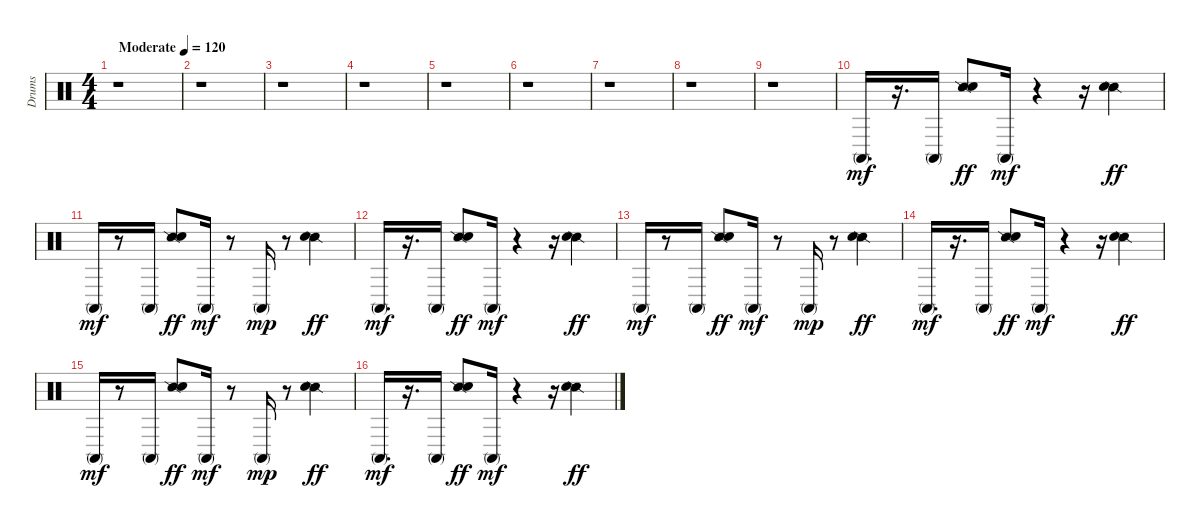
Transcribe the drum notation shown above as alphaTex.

\track ("Drums" "Drums") {instrument percussion}
\staff {score}
\articulation defaults
\ts (4 4)
\tempo (120 "Moderate")
\clef neutral
\ks c
r.1{dy mf} |
r.1 |
r.1 |
r.1 |
r.1 |
r.1 |
r.1 |
r.1 |
r.1 |
"Conga high (mute)".16{d} r.16{d} "Conga high (mute)".16 ("Snare (side stick) 2" "Hand Clap (hit)").8{dy ff} "Conga high (mute)".16{dy mf} r.4 r.16 ("Snare (side stick) 2" "Hand Clap (hit)").4{dy ff} |
"Conga high (mute)".16{dy mf} r.8 "Conga high (mute)".16 ("Snare (side stick) 2" "Hand Clap (hit)").8{dy ff} "Conga high (mute)".16{dy mf} r.8 "Conga high (mute)".16{dy mp} r.8 ("Snare (side stick) 2" "Hand Clap (hit)").4{dy ff} |
"Conga high (mute)".16{d dy mf} r.16{d} "Conga high (mute)".16 ("Snare (side stick) 2" "Hand Clap (hit)").8{dy ff} "Conga high (mute)".16{dy mf} r.4 r.16 ("Snare (side stick) 2" "Hand Clap (hit)").4{dy ff} |
"Conga high (mute)".16{dy mf} r.8 "Conga high (mute)".16 ("Snare (side stick) 2" "Hand Clap (hit)").8{dy ff} "Conga high (mute)".16{dy mf} r.8 "Conga high (mute)".16{dy mp} r.8 ("Snare (side stick) 2" "Hand Clap (hit)").4{dy ff} |
"Conga high (mute)".16{d dy mf} r.16{d} "Conga high (mute)".16 ("Snare (side stick) 2" "Hand Clap (hit)").8{dy ff} "Conga high (mute)".16{dy mf} r.4 r.16 ("Snare (side stick) 2" "Hand Clap (hit)").4{dy ff} |
"Conga high (mute)".16{dy mf} r.8 "Conga high (mute)".16 ("Snare (side stick) 2" "Hand Clap (hit)").8{dy ff} "Conga high (mute)".16{dy mf} r.8 "Conga high (mute)".16{dy mp} r.8 ("Snare (side stick) 2" "Hand Clap (hit)").4{dy ff} |
"Conga high (mute)".16{d dy mf} r.16{d} "Conga high (mute)".16 ("Snare (side stick) 2" "Hand Clap (hit)").8{dy ff} "Conga high (mute)".16{dy mf} r.4 r.16 ("Snare (side stick) 2" "Hand Clap (hit)").4{dy ff}
